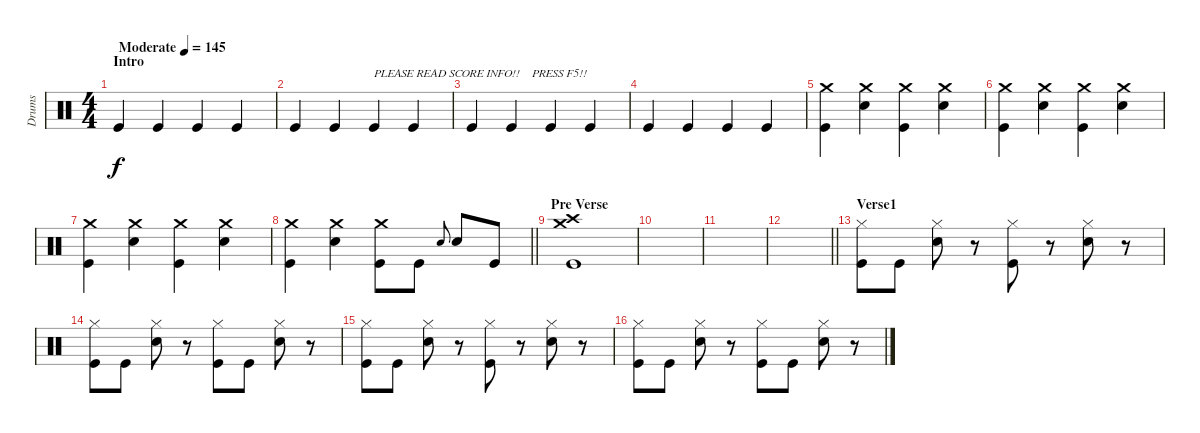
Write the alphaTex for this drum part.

\track ("Drums" "Drums") {instrument percussion}
\staff {score}
\articulation defaults
\ts (4 4)
\section ("" "Intro")
\tempo (145 "Moderate")
\clef neutral
\ks c "Kick (hit)".4{dy f} "Kick (hit)".4 "Kick (hit)".4 "Kick (hit)".4
|
"Kick (hit)".4 "Kick (hit)".4 "Kick (hit)".4{txt "PLEASE READ SCORE INFO!!    PRESS F5!!"} "Kick (hit)".4 |
"Kick (hit)".4 "Kick (hit)".4 "Kick (hit)".4 "Kick (hit)".4 |
"Kick (hit)".4 "Kick (hit)".4 "Kick (hit)".4 "Kick (hit)".4 |
("Crash medium (hit)" "Kick (hit)").4 ("Crash medium (hit)" "Snare (hit) 2").4 ("Crash medium (hit)" "Kick (hit)").4 ("Crash medium (hit)" "Snare (hit) 2").4 |
("Crash medium (hit)" "Kick (hit)").4 ("Crash medium (hit)" "Snare (hit) 2").4 ("Crash medium (hit)" "Kick (hit)").4 ("Crash medium (hit)" "Snare (hit) 2").4 |
("Crash medium (hit)" "Kick (hit)").4 ("Crash medium (hit)" "Snare (hit) 2").4 ("Crash medium (hit)" "Kick (hit)").4 ("Crash medium (hit)" "Snare (hit) 2").4 |
\barLineRight lightlight
("Crash medium (hit)" "Kick (hit)").4 ("Crash medium (hit)" "Snare (hit) 2").4 ("Crash medium (hit)" "Kick (hit)").8 "Kick (hit)".8 "Snare (hit) 2".8{gr onbeat} "Snare (hit) 2".8 "Kick (hit)".8 |
\section ("" "Pre Verse")
("Crash medium (hit)" "Crash high (hit)" "Kick (hit)").1 |
|
|
\barLineRight lightlight
|
\section ("" "Verse1")
("Hi-Hat (closed)" "Kick (hit)").8 "Kick (hit)".8 ("Hi-Hat (closed)" "Snare (hit) 2").8 r.8 ("Hi-Hat (closed)" "Kick (hit)").8 r.8 ("Hi-Hat (closed)" "Snare (hit) 2").8 r.8 |
("Hi-Hat (closed)" "Kick (hit)").8 "Kick (hit)".8 ("Hi-Hat (closed)" "Snare (hit) 2").8 r.8 ("Hi-Hat (closed)" "Kick (hit)").8 "Kick (hit)".8 ("Hi-Hat (closed)" "Snare (hit) 2").8 r.8 |
("Hi-Hat (closed)" "Kick (hit)").8 "Kick (hit)".8 ("Hi-Hat (closed)" "Snare (hit) 2").8 r.8 ("Hi-Hat (closed)" "Kick (hit)").8 r.8 ("Hi-Hat (closed)" "Snare (hit) 2").8 r.8 |
("Hi-Hat (closed)" "Kick (hit)").8 "Kick (hit)".8 ("Hi-Hat (closed)" "Snare (hit) 2").8 r.8 ("Hi-Hat (closed)" "Kick (hit)").8 "Kick (hit)".8 ("Hi-Hat (closed)" "Snare (hit) 2").8 r.8
